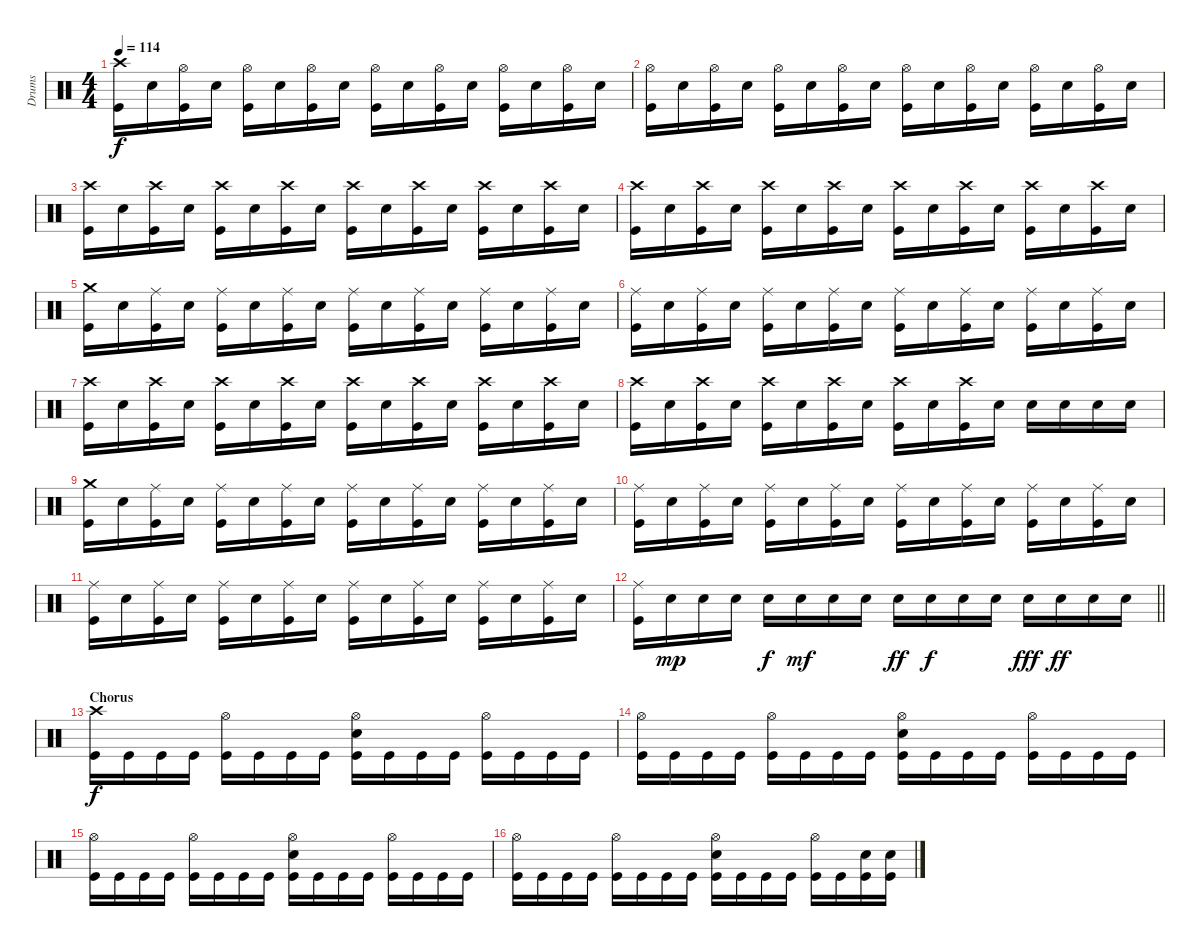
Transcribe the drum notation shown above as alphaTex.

\track ("Drums" "Drums") {instrument percussion}
\staff {score}
\articulation defaults
\ts (4 4)
\tempo 114
\clef neutral
\ks c
("Crash high (hit)" "Kick (hit)").16{dy f} "Snare (hit) 2".16 ("Hi-Hat (open)" "Kick (hit)").16 "Snare (hit) 2".16 ("Hi-Hat (open)" "Kick (hit)").16 "Snare (hit) 2".16 ("Hi-Hat (open)" "Kick (hit)").16 "Snare (hit) 2".16 ("Hi-Hat (open)" "Kick (hit)").16 "Snare (hit) 2".16 ("Hi-Hat (open)" "Kick (hit)").16 "Snare (hit) 2".16 ("Hi-Hat (open)" "Kick (hit)").16 "Snare (hit) 2".16 ("Hi-Hat (open)" "Kick (hit)").16 "Snare (hit) 2".16 |
("Hi-Hat (open)" "Kick (hit)").16 "Snare (hit) 2".16 ("Hi-Hat (open)" "Kick (hit)").16 "Snare (hit) 2".16 ("Hi-Hat (open)" "Kick (hit)").16 "Snare (hit) 2".16 ("Hi-Hat (open)" "Kick (hit)").16 "Snare (hit) 2".16 ("Hi-Hat (open)" "Kick (hit)").16 "Snare (hit) 2".16 ("Hi-Hat (open)" "Kick (hit)").16 "Snare (hit) 2".16 ("Hi-Hat (open)" "Kick (hit)").16 "Snare (hit) 2".16 ("Hi-Hat (open)" "Kick (hit)").16 "Snare (hit) 2".16 |
("Crash high (hit)" "Kick (hit)").16 "Snare (hit) 2".16 ("Crash high (hit)" "Kick (hit)").16 "Snare (hit) 2".16 ("Crash high (hit)" "Kick (hit)").16 "Snare (hit) 2".16 ("Crash high (hit)" "Kick (hit)").16 "Snare (hit) 2".16 ("Crash high (hit)" "Kick (hit)").16 "Snare (hit) 2".16 ("Crash high (hit)" "Kick (hit)").16 "Snare (hit) 2".16 ("Crash high (hit)" "Kick (hit)").16 "Snare (hit) 2".16 ("Crash high (hit)" "Kick (hit)").16 "Snare (hit) 2".16 |
("Crash high (hit)" "Kick (hit)").16 "Snare (hit) 2".16 ("Crash high (hit)" "Kick (hit)").16 "Snare (hit) 2".16 ("Crash high (hit)" "Kick (hit)").16 "Snare (hit) 2".16 ("Crash high (hit)" "Kick (hit)").16 "Snare (hit) 2".16 ("Crash high (hit)" "Kick (hit)").16 "Snare (hit) 2".16 ("Crash high (hit)" "Kick (hit)").16 "Snare (hit) 2".16 ("Crash high (hit)" "Kick (hit)").16 "Snare (hit) 2".16 ("Crash high (hit)" "Kick (hit)").16 "Snare (hit) 2".16 |
("Crash medium (hit)" "Kick (hit)").16 "Snare (hit) 2".16 ("Ride (middle)" "Kick (hit)").16 "Snare (hit) 2".16 ("Ride (middle)" "Kick (hit)").16 "Snare (hit) 2".16 ("Ride (middle)" "Kick (hit)").16 "Snare (hit) 2".16 ("Ride (middle)" "Kick (hit)").16 "Snare (hit) 2".16 ("Ride (middle)" "Kick (hit)").16 "Snare (hit) 2".16 ("Ride (middle)" "Kick (hit)").16 "Snare (hit) 2".16 ("Ride (middle)" "Kick (hit)").16 "Snare (hit) 2".16 |
("Ride (middle)" "Kick (hit)").16 "Snare (hit) 2".16 ("Ride (middle)" "Kick (hit)").16 "Snare (hit) 2".16 ("Ride (middle)" "Kick (hit)").16 "Snare (hit) 2".16 ("Ride (middle)" "Kick (hit)").16 "Snare (hit) 2".16 ("Ride (middle)" "Kick (hit)").16 "Snare (hit) 2".16 ("Ride (middle)" "Kick (hit)").16 "Snare (hit) 2".16 ("Ride (middle)" "Kick (hit)").16 "Snare (hit) 2".16 ("Ride (middle)" "Kick (hit)").16 "Snare (hit) 2".16 |
("Crash high (hit)" "Kick (hit)").16 "Snare (hit) 2".16 ("Crash high (hit)" "Kick (hit)").16 "Snare (hit) 2".16 ("Crash high (hit)" "Kick (hit)").16 "Snare (hit) 2".16 ("Crash high (hit)" "Kick (hit)").16 "Snare (hit) 2".16 ("Crash high (hit)" "Kick (hit)").16 "Snare (hit) 2".16 ("Crash high (hit)" "Kick (hit)").16 "Snare (hit) 2".16 ("Crash high (hit)" "Kick (hit)").16 "Snare (hit) 2".16 ("Crash high (hit)" "Kick (hit)").16 "Snare (hit) 2".16 |
("Crash high (hit)" "Kick (hit)").16 "Snare (hit) 2".16 ("Crash high (hit)" "Kick (hit)").16 "Snare (hit) 2".16 ("Crash high (hit)" "Kick (hit)").16 "Snare (hit) 2".16 ("Crash high (hit)" "Kick (hit)").16 "Snare (hit) 2".16 ("Crash high (hit)" "Kick (hit)").16 "Snare (hit) 2".16 ("Crash high (hit)" "Kick (hit)").16 "Snare (hit) 2".16 "Snare (hit) 2".16 "Snare (hit) 2".16 "Snare (hit) 2".16 "Snare (hit) 2".16 |
("Crash medium (hit)" "Kick (hit)").16 "Snare (hit) 2".16 ("Ride (middle)" "Kick (hit)").16 "Snare (hit) 2".16 ("Ride (middle)" "Kick (hit)").16 "Snare (hit) 2".16 ("Ride (middle)" "Kick (hit)").16 "Snare (hit) 2".16 ("Ride (middle)" "Kick (hit)").16 "Snare (hit) 2".16 ("Ride (middle)" "Kick (hit)").16 "Snare (hit) 2".16 ("Ride (middle)" "Kick (hit)").16 "Snare (hit) 2".16 ("Ride (middle)" "Kick (hit)").16 "Snare (hit) 2".16 |
("Ride (middle)" "Kick (hit)").16 "Snare (hit) 2".16 ("Ride (middle)" "Kick (hit)").16 "Snare (hit) 2".16 ("Ride (middle)" "Kick (hit)").16 "Snare (hit) 2".16 ("Ride (middle)" "Kick (hit)").16 "Snare (hit) 2".16 ("Ride (middle)" "Kick (hit)").16 "Snare (hit) 2".16 ("Ride (middle)" "Kick (hit)").16 "Snare (hit) 2".16 ("Ride (middle)" "Kick (hit)").16 "Snare (hit) 2".16 ("Ride (middle)" "Kick (hit)").16 "Snare (hit) 2".16 |
("Ride (middle)" "Kick (hit)").16 "Snare (hit) 2".16 ("Ride (middle)" "Kick (hit)").16 "Snare (hit) 2".16 ("Ride (middle)" "Kick (hit)").16 "Snare (hit) 2".16 ("Ride (middle)" "Kick (hit)").16 "Snare (hit) 2".16 ("Ride (middle)" "Kick (hit)").16 "Snare (hit) 2".16 ("Ride (middle)" "Kick (hit)").16 "Snare (hit) 2".16 ("Ride (middle)" "Kick (hit)").16 "Snare (hit) 2".16 ("Ride (middle)" "Kick (hit)").16 "Snare (hit) 2".16 |
\barLineRight lightlight
("Ride (middle)" "Kick (hit)").16 "Snare (hit) 2".16{dy mp} "Snare (hit) 2".16 "Snare (hit) 2".16 "Snare (hit) 2".16{dy f} "Snare (hit) 2".16{dy mf} "Snare (hit) 2".16 "Snare (hit) 2".16 "Snare (hit) 2".16{dy ff} "Snare (hit) 2".16{dy f} "Snare (hit) 2".16 "Snare (hit) 2".16 "Snare (hit) 2".16{dy fff} "Snare (hit) 2".16{dy ff} "Snare (hit) 2".16 "Snare (hit) 2".16 |
\section ("" "Chorus")
("Crash high (hit)" "Kick (hit)").16{dy f} "Kick (hit)".16 "Kick (hit)".16 "Kick (hit)".16 ("Hi-Hat (open)" "Kick (hit)").16 "Kick (hit)".16 "Kick (hit)".16 "Kick (hit)".16 ("Hi-Hat (open)" "Snare (hit) 2" "Kick (hit)").16 "Kick (hit)".16 "Kick (hit)".16 "Kick (hit)".16 ("Hi-Hat (open)" "Kick (hit)").16 "Kick (hit)".16 "Kick (hit)".16 "Kick (hit)".16 |
("Hi-Hat (open)" "Kick (hit)").16 "Kick (hit)".16 "Kick (hit)".16 "Kick (hit)".16 ("Hi-Hat (open)" "Kick (hit)").16 "Kick (hit)".16 "Kick (hit)".16 "Kick (hit)".16 ("Hi-Hat (open)" "Snare (hit) 2" "Kick (hit)").16 "Kick (hit)".16 "Kick (hit)".16 "Kick (hit)".16 ("Hi-Hat (open)" "Kick (hit)").16 "Kick (hit)".16 "Kick (hit)".16 "Kick (hit)".16 |
("Hi-Hat (open)" "Kick (hit)").16 "Kick (hit)".16 "Kick (hit)".16 "Kick (hit)".16 ("Hi-Hat (open)" "Kick (hit)").16 "Kick (hit)".16 "Kick (hit)".16 "Kick (hit)".16 ("Hi-Hat (open)" "Snare (hit) 2" "Kick (hit)").16 "Kick (hit)".16 "Kick (hit)".16 "Kick (hit)".16 ("Hi-Hat (open)" "Kick (hit)").16 "Kick (hit)".16 "Kick (hit)".16 "Kick (hit)".16 |
("Hi-Hat (open)" "Kick (hit)").16 "Kick (hit)".16 "Kick (hit)".16 "Kick (hit)".16 ("Hi-Hat (open)" "Kick (hit)").16 "Kick (hit)".16 "Kick (hit)".16 "Kick (hit)".16 ("Hi-Hat (open)" "Snare (hit) 2" "Kick (hit)").16 "Kick (hit)".16 "Kick (hit)".16 "Kick (hit)".16 ("Hi-Hat (open)" "Kick (hit)").16 "Kick (hit)".16 ("Snare (hit) 2" "Kick (hit)").16 ("Snare (hit) 2" "Kick (hit)").16
